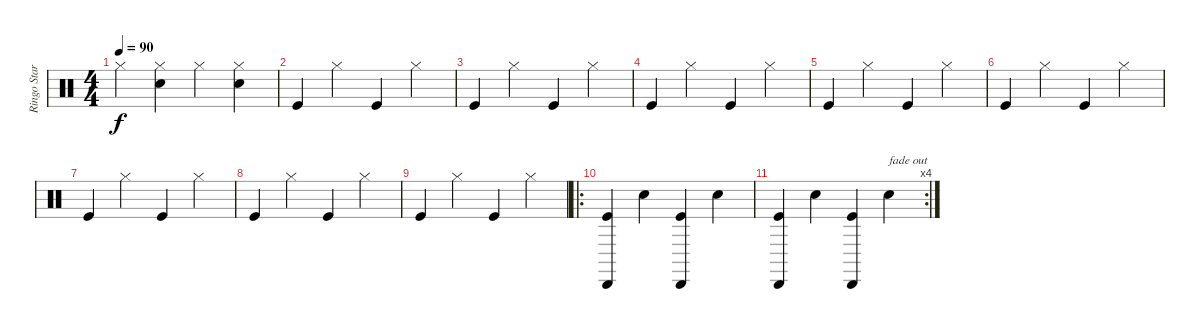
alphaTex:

\track ("Ringo Starr" "Ringo Star") {instrument percussion}
\staff {score}
\articulation defaults
\ts (4 4)
\tempo 90
\clef neutral
\ks c "Hi-Hat (closed)".4{dy f}
("Hi-Hat (closed)" "Snare (hit) 2").4 "Hi-Hat (closed)".4 ("Hi-Hat (closed)" "Snare (hit) 2").4 |
"Kick (hit)".4 "Hi-Hat (closed)".4 "Kick (hit)".4 "Hi-Hat (closed)".4 |
"Kick (hit)".4 "Hi-Hat (closed)".4 "Kick (hit)".4 "Hi-Hat (closed)".4 |
"Kick (hit)".4 "Hi-Hat (closed)".4 "Kick (hit)".4 "Hi-Hat (closed)".4 |
"Kick (hit)".4 "Hi-Hat (closed)".4 "Kick (hit)".4 "Hi-Hat (closed)".4 |
"Kick (hit)".4 "Hi-Hat (closed)".4 "Kick (hit)".4 "Hi-Hat (closed)".4 |
"Kick (hit)".4 "Hi-Hat (closed)".4 "Kick (hit)".4 "Hi-Hat (closed)".4 |
"Kick (hit)".4 "Hi-Hat (closed)".4 "Kick (hit)".4 "Hi-Hat (closed)".4 |
"Kick (hit)".4 "Hi-Hat (closed)".4 "Kick (hit)".4 "Hi-Hat (closed)".4 |
\ro
("Cabasa (hit)" "Kick (hit)").4 "Snare (hit) 2".4 ("Cabasa (hit)" "Kick (hit)").4 "Snare (hit) 2".4 |
\rc 4
("Cabasa (hit)" "Kick (hit)").4 "Snare (hit) 2".4 ("Cabasa (hit)" "Kick (hit)").4 "Snare (hit) 2".4{txt "fade out"}
